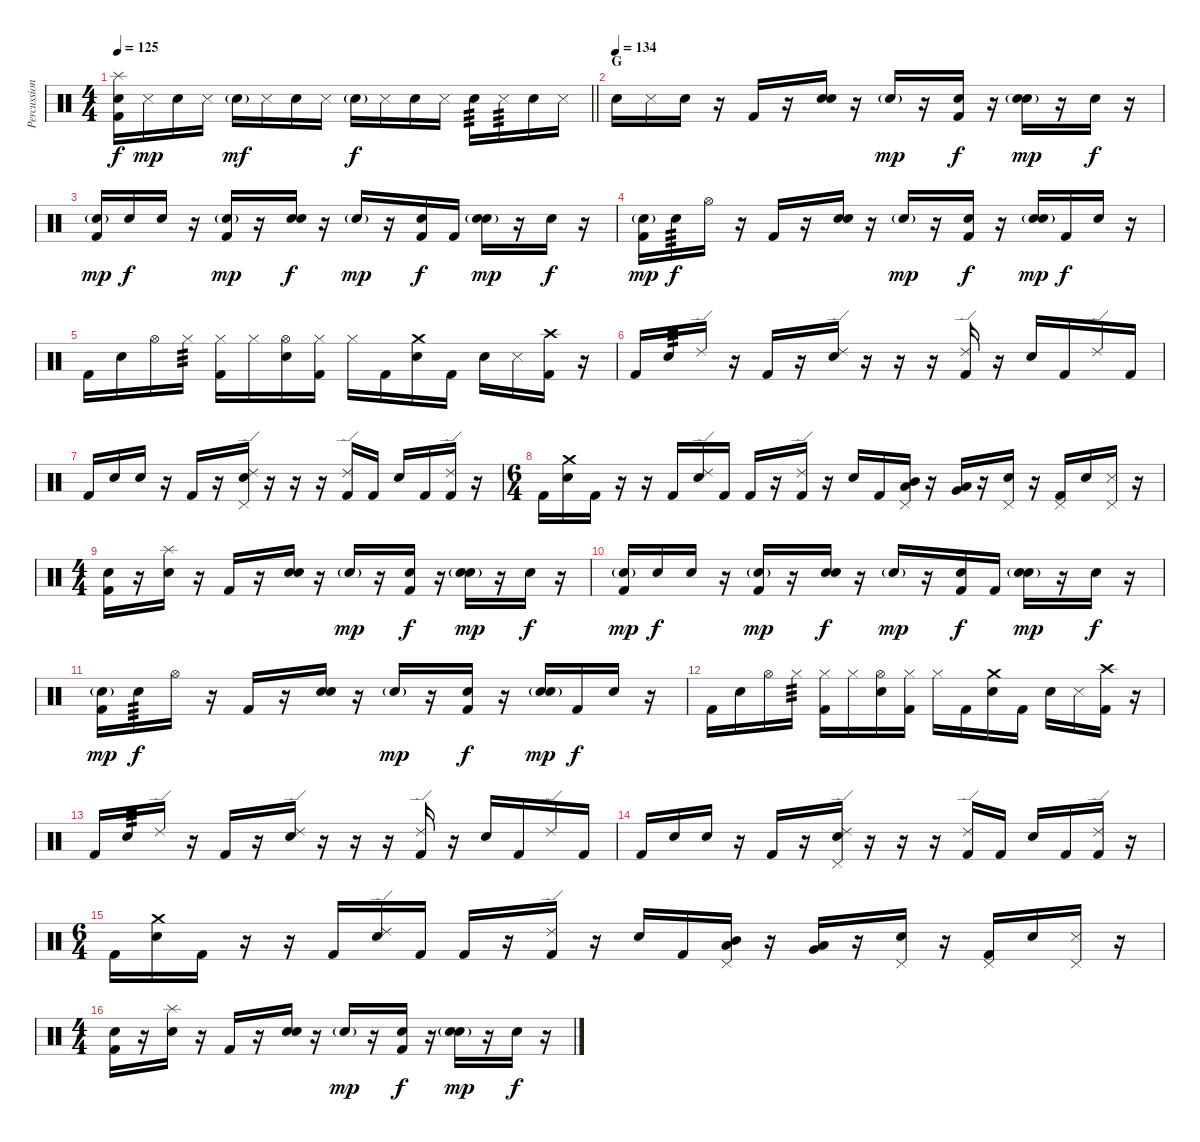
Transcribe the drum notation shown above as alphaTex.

\track ("Percussion" "Percussion") {instrument percussion}
\staff {score}
\articulation defaults
\ts (4 4)
\tempo 125
\clef neutral
\barLineRight lightlight
\ks c
("Splash (hit)" "Snare (hit) 2" "Kick (hit) 2").16{dy f} "Metronome (hit)".16{dy mp} "Snare (hit) 2".16 "Metronome (hit)".16 "Snare (hit) 2"{g}.16{dy mf} "Metronome (hit)".16 "Snare (hit) 2".16 "Metronome (hit)".16 "Snare (hit) 2"{g}.16{dy f} "Metronome (hit)".16 "Snare (hit) 2".16 "Metronome (hit)".16 "Snare (hit) 2".16{tp 3} "Metronome (hit)".16{tp 3} "Snare (hit) 2".16 "Metronome (hit)".16 |
\section ("" "G")
\tempo (134)
"Snare (hit) 2".16 "Metronome (hit)".16 "Snare (hit)".16 r.16 "Kick (hit) 2".16 r.16 ("Snare (hit)" "Snare (hit) 2").16 r.16 "Snare (hit)"{g}.16{dy mp} r.16 ("Snare (hit)" "Kick (hit) 2").16{dy f} r.16 ("Snare (hit)"{g} "Snare (hit) 2").16{dy mp} r.16 "Snare (hit)".16{dy f} r.16 |
("Snare (hit)"{g} "Kick (hit) 2").16{dy mp} "Snare (hit) 2".16{dy f} "Snare (hit)".16 r.16 ("Snare (hit)"{g} "Kick (hit) 2").16{dy mp} r.16 ("Snare (hit)" "Snare (hit) 2").16{dy f} r.16 "Snare (hit)"{g}.16{dy mp} r.16 ("Snare (hit)" "Kick (hit) 2").16{dy f} "Kick (hit) 2".16 ("Snare (hit)"{g} "Snare (hit) 2").16{dy mp} r.16 "Snare (hit)".16{dy f} r.16 |
("Snare (hit)"{g} "Kick (hit) 2").16{dy mp} "Snare (hit) 2".16{tp 3 dy f} "Hi-Hat (open)".16 r.16 "Kick (hit) 2".16 r.16 ("Snare (hit)" "Snare (hit) 2").16 r.16 "Snare (hit)"{g}.16{dy mp} r.16 ("Snare (hit)" "Kick (hit) 2").16{dy f} r.16 ("Snare (hit)"{g} "Snare (hit) 2").16{dy mp} "Kick (hit) 2".16{dy f} "Snare (hit)".16 r.16 |
"Kick (hit) 2".16 "Snare (hit) 2".16 "Hi-Hat (open)".16 "Hi-Hat (closed)".16{tp 3} ("Hi-Hat (closed)" "Kick (hit) 2").16 "Hi-Hat (closed)".16 ("Hi-Hat (open)" "Snare (hit) 2").16 ("Hi-Hat (closed)" "Kick (hit) 2").16 "Hi-Hat (closed)".16 "Kick (hit) 2".16 ("Crash medium (hit)" "Snare (hit) 2").16 "Kick (hit) 2".16 "Snare (hit) 2".16 "Metronome (hit)".16 ("Crash high (hit)" "Kick (hit) 2").16 r.16 |
"Kick (hit) 2".16 "Snare (hit) 2".16{tp 3} "Ride (edge) 2".16 r.16 "Kick (hit) 2".16 r.16 ("Ride (edge) 2" "Snare (hit) 2").16 r.16 r.16 r.16 ("Ride (edge) 2" "Kick (hit) 2").16 r.16 "Snare (hit) 2".16 "Kick (hit) 2".16 "Ride (edge) 2".16 "Kick (hit) 2".16 |
"Kick (hit) 2".16 "Snare (hit) 2".16 "Snare (hit)".16 r.16 "Kick (hit) 2".16 r.16 ("Ride (edge) 2" "Pedal Hi-Hat (hit)" "Snare (hit) 2").16 r.16 r.16 r.16 ("Ride (edge) 2" "Kick (hit) 2").16 "Kick (hit) 2".16 "Snare (hit) 2".16 "Kick (hit) 2".16 ("Ride (edge) 2" "Kick (hit) 2").16 r.16 |
\ts (6 4)
"Kick (hit) 2".16 ("Crash medium (hit)" "Snare (hit) 2").16 "Kick (hit) 2".16 r.16 r.16 "Kick (hit) 2".16 ("Ride (edge) 2" "Snare (hit) 2").16 "Kick (hit) 2".16 "Kick (hit) 2".16 r.16 ("Ride (edge) 2" "Kick (hit) 2").16 r.16 "Snare (hit) 2".16 "Kick (hit) 2".16 ("Pedal Hi-Hat (hit)" "Mid Tom (hit)" "Low Tom (hit)").16 r.16 ("Low Tom (hit)" "Very Low Tom (hit)").16 r.16 ("Pedal Hi-Hat (hit)" "Snare (hit) 2").16 r.16 ("Pedal Hi-Hat (hit)" "Kick (hit) 2").16 "Snare (hit) 2".16 ("Pedal Hi-Hat (hit)" "Metronome (hit)").16 r.16 |
\ts (4 4)
("Snare (hit)" "Kick (hit) 2").16 r.16 ("Splash (hit)" "Snare (hit) 2").16 r.16 "Kick (hit) 2".16 r.16 ("Snare (hit)" "Snare (hit) 2").16 r.16 "Snare (hit)"{g}.16{dy mp} r.16 ("Snare (hit)" "Kick (hit) 2").16{dy f} r.16 ("Snare (hit)"{g} "Snare (hit) 2").16{dy mp} r.16 "Snare (hit)".16{dy f} r.16 |
("Snare (hit)"{g} "Kick (hit) 2").16{dy mp} "Snare (hit) 2".16{dy f} "Snare (hit)".16 r.16 ("Snare (hit)"{g} "Kick (hit) 2").16{dy mp} r.16 ("Snare (hit)" "Snare (hit) 2").16{dy f} r.16 "Snare (hit)"{g}.16{dy mp} r.16 ("Snare (hit)" "Kick (hit) 2").16{dy f} "Kick (hit) 2".16 ("Snare (hit)"{g} "Snare (hit) 2").16{dy mp} r.16 "Snare (hit)".16{dy f} r.16 |
("Snare (hit)"{g} "Kick (hit) 2").16{dy mp} "Snare (hit) 2".16{tp 3 dy f} "Hi-Hat (open)".16 r.16 "Kick (hit) 2".16 r.16 ("Snare (hit)" "Snare (hit) 2").16 r.16 "Snare (hit)"{g}.16{dy mp} r.16 ("Snare (hit)" "Kick (hit) 2").16{dy f} r.16 ("Snare (hit)"{g} "Snare (hit) 2").16{dy mp} "Kick (hit) 2".16{dy f} "Snare (hit)".16 r.16 |
"Kick (hit) 2".16 "Snare (hit) 2".16 "Hi-Hat (open)".16 "Hi-Hat (closed)".16{tp 3} ("Hi-Hat (closed)" "Kick (hit) 2").16 "Hi-Hat (closed)".16 ("Hi-Hat (open)" "Snare (hit) 2").16 ("Hi-Hat (closed)" "Kick (hit) 2").16 "Hi-Hat (closed)".16 "Kick (hit) 2".16 ("Crash medium (hit)" "Snare (hit) 2").16 "Kick (hit) 2".16 "Snare (hit) 2".16 "Metronome (hit)".16 ("Crash high (hit)" "Kick (hit) 2").16 r.16 |
"Kick (hit) 2".16 "Snare (hit) 2".16{tp 3} "Ride (edge) 2".16 r.16 "Kick (hit) 2".16 r.16 ("Ride (edge) 2" "Snare (hit) 2").16 r.16 r.16 r.16 ("Ride (edge) 2" "Kick (hit) 2").16 r.16 "Snare (hit) 2".16 "Kick (hit) 2".16 "Ride (edge) 2".16 "Kick (hit) 2".16 |
"Kick (hit) 2".16 "Snare (hit) 2".16 "Snare (hit)".16 r.16 "Kick (hit) 2".16 r.16 ("Ride (edge) 2" "Pedal Hi-Hat (hit)" "Snare (hit) 2").16 r.16 r.16 r.16 ("Ride (edge) 2" "Kick (hit) 2").16 "Kick (hit) 2".16 "Snare (hit) 2".16 "Kick (hit) 2".16 ("Ride (edge) 2" "Kick (hit) 2").16 r.16 |
\ts (6 4)
"Kick (hit) 2".16 ("Crash medium (hit)" "Snare (hit) 2").16 "Kick (hit) 2".16 r.16 r.16 "Kick (hit) 2".16 ("Ride (edge) 2" "Snare (hit) 2").16 "Kick (hit) 2".16 "Kick (hit) 2".16 r.16 ("Ride (edge) 2" "Kick (hit) 2").16 r.16 "Snare (hit) 2".16 "Kick (hit) 2".16 ("Pedal Hi-Hat (hit)" "Mid Tom (hit)" "Low Tom (hit)").16 r.16 ("Low Tom (hit)" "Very Low Tom (hit)").16 r.16 ("Pedal Hi-Hat (hit)" "Snare (hit) 2").16 r.16 ("Pedal Hi-Hat (hit)" "Kick (hit) 2").16 "Snare (hit) 2".16 ("Pedal Hi-Hat (hit)" "Metronome (hit)").16 r.16 |
\ts (4 4)
("Snare (hit)" "Kick (hit) 2").16 r.16 ("Splash (hit)" "Snare (hit) 2").16 r.16 "Kick (hit) 2".16 r.16 ("Snare (hit)" "Snare (hit) 2").16 r.16 "Snare (hit)"{g}.16{dy mp} r.16 ("Snare (hit)" "Kick (hit) 2").16{dy f} r.16 ("Snare (hit)"{g} "Snare (hit) 2").16{dy mp} r.16 "Snare (hit)".16{dy f} r.16
